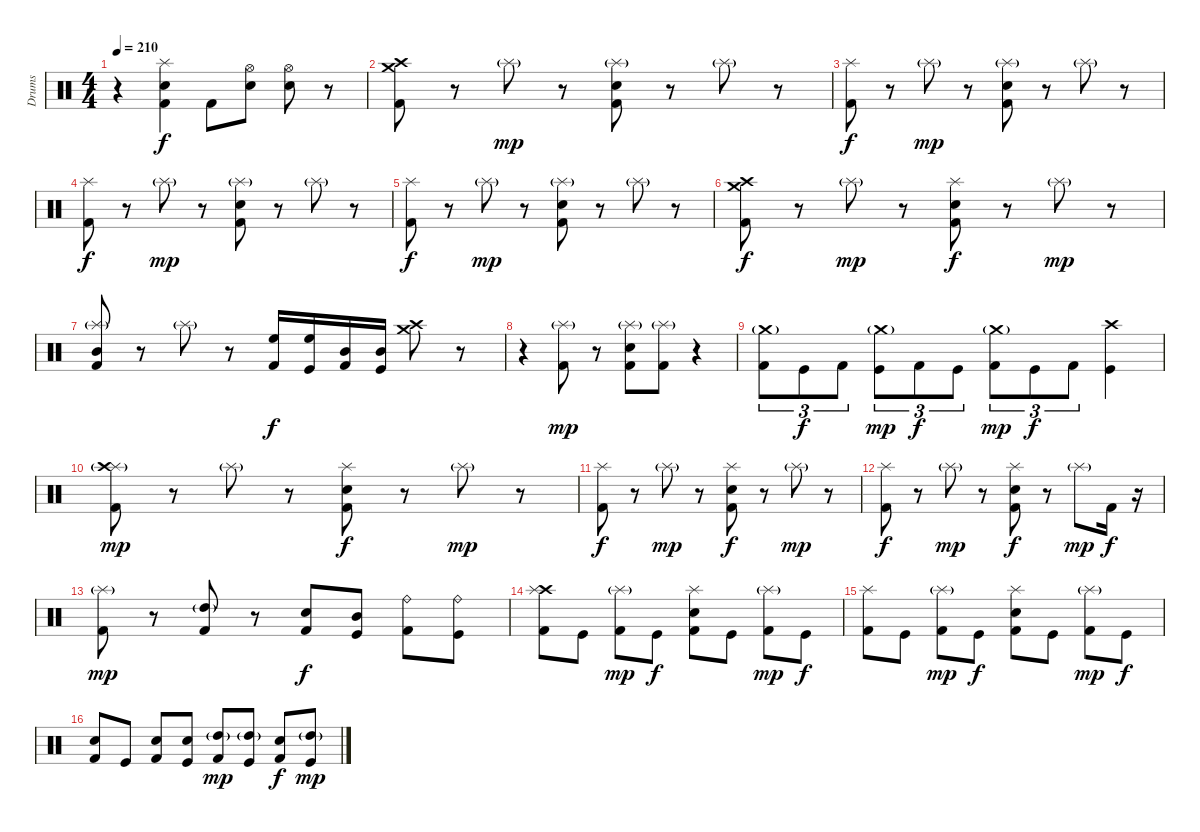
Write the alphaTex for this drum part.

\track ("Drums" "Drums") {instrument percussion}
\staff {score}
\articulation defaults
\ts (4 4)
\tempo 210
\clef neutral
\ks c
r.4{dy f} ("Kick (hit) 2" "Electric Snare (hit)" "Splash (hit)").4 "Kick (hit) 2".8 ("Hi-Hat (open)" "Electric Snare (hit)").8 ("Hi-Hat (open)" "Electric Snare (hit)").8 r.8 |
("Kick (hit) 2" "Crash medium (hit)" "Crash high (hit)").8 r.8 "Splash (hit)"{g}.8{dy mp} r.8 ("Kick (hit) 2" "Electric Snare (hit)" "Splash (hit)"{g}).8 r.8 "Splash (hit)"{g}.8 r.8 |
("Kick (hit) 2" "Splash (hit)").8{dy f} r.8 "Splash (hit)"{g}.8{dy mp} r.8 ("Kick (hit) 2" "Electric Snare (hit)" "Splash (hit)"{g}).8 r.8 "Splash (hit)"{g}.8 r.8 |
("Kick (hit) 2" "Splash (hit)").8{dy f} r.8 "Splash (hit)"{g}.8{dy mp} r.8 ("Kick (hit) 2" "Electric Snare (hit)" "Splash (hit)"{g}).8 r.8 "Splash (hit)"{g}.8 r.8 |
("Kick (hit) 2" "Splash (hit)").8{dy f} r.8 "Splash (hit)"{g}.8{dy mp} r.8 ("Kick (hit) 2" "Electric Snare (hit)" "Splash (hit)"{g}).8 r.8 "Splash (hit)"{g}.8 r.8 |
("Kick (hit) 2" "Crash medium (hit)" "Crash high (hit)").8{dy f} r.8 "Splash (hit)"{g}.8{dy mp} r.8 ("Kick (hit) 2" "Electric Snare (hit)" "Splash (hit)").8{dy f} r.8 "Splash (hit)"{g}.8{dy mp} r.8 |
("Kick (hit) 2" "Mid Tom (hit)" "Splash (hit)"{g}).8 r.8 "Splash (hit)"{g}.8 r.8 ("Kick (hit) 2" "High Floor Tom (hit)").16{dy f} ("Kick (hit)" "High Floor Tom (hit)").16 ("Kick (hit) 2" "Mid Tom (hit)").16 ("Kick (hit)" "Mid Tom (hit)").16 ("Crash high (hit)" "Crash medium (hit)").8 r.8 |
r.4 ("Kick (hit) 2" "Splash (hit)"{g}).8{dy mp} r.8 ("Kick (hit) 2" "Electric Snare (hit)" "Splash (hit)"{g}).8 ("Kick (hit) 2" "Splash (hit)"{g}).8 r.4 |
("Kick (hit) 2" "Crash medium (hit)"{g}).8{tu (3 2)} "Kick (hit)".8{tu (3 2) dy f} "Kick (hit) 2".8{tu (3 2)} ("Kick (hit)" "Crash medium (hit)"{g}).8{tu (3 2) dy mp} "Kick (hit) 2".8{tu (3 2) dy f} "Kick (hit)".8{tu (3 2)} ("Kick (hit) 2" "Crash medium (hit)"{g}).8{tu (3 2) dy mp} "Kick (hit)".8{tu (3 2) dy f} "Kick (hit) 2".8{tu (3 2)} ("Kick (hit)" "Crash high (hit)").4 |
("Kick (hit) 2" "Splash (hit)"{g} "Crash high (hit)").8{dy mp} r.8 "Splash (hit)"{g}.8 r.8 ("Kick (hit) 2" "Electric Snare (hit)" "Splash (hit)").8{dy f} r.8 "Splash (hit)"{g}.8{dy mp} r.8 |
("Kick (hit) 2" "Splash (hit)").8{dy f} r.8 "Splash (hit)"{g}.8{dy mp} r.8 ("Kick (hit) 2" "Electric Snare (hit)" "Splash (hit)").8{dy f} r.8 "Splash (hit)"{g}.8{dy mp} r.8 |
("Kick (hit) 2" "Splash (hit)").8{dy f} r.8 "Splash (hit)"{g}.8{dy mp} r.8 ("Kick (hit) 2" "Electric Snare (hit)" "Splash (hit)").8{dy f} r.8 "Splash (hit)"{g}.8{dy mp} "Kick (hit) 2".16{dy f} r.16 |
("Kick (hit) 2" "Splash (hit)"{g}).8{dy mp} r.8 ("Kick (hit) 2" "High Tom (hit)"{g}).8 r.8 ("Kick (hit) 2" "Electric Snare (hit)").8{dy f} ("Kick (hit)" "Mid Tom (hit)").8 ("Kick (hit) 2" "Ride (bell)").8 ("Kick (hit)" "Ride (bell)").8 |
("Kick (hit) 2" "Crash high (hit)" "Splash (hit)").8 "Kick (hit)".8 ("Kick (hit) 2" "Splash (hit)"{g}).8{dy mp} "Kick (hit)".8{dy f} ("Kick (hit) 2" "Electric Snare (hit)" "Splash (hit)").8 "Kick (hit)".8 ("Kick (hit) 2" "Splash (hit)"{g}).8{dy mp} "Kick (hit)".8{dy f} |
("Kick (hit) 2" "Splash (hit)").8 "Kick (hit)".8 ("Kick (hit) 2" "Splash (hit)"{g}).8{dy mp} "Kick (hit)".8{dy f} ("Kick (hit) 2" "Electric Snare (hit)" "Splash (hit)").8 "Kick (hit)".8 ("Kick (hit) 2" "Splash (hit)"{g}).8{dy mp} "Kick (hit)".8{dy f} |
("Kick (hit) 2" "Electric Snare (hit)").8 "Kick (hit)".8 ("Kick (hit) 2" "Electric Snare (hit)").8 ("Kick (hit)" "Electric Snare (hit)").8 ("Kick (hit) 2" "High Tom (hit)"{g}).8{dy mp} ("Kick (hit)" "High Tom (hit)"{g}).8 ("Kick (hit) 2" "Electric Snare (hit)").8{dy f} ("Kick (hit)" "High Tom (hit)"{g}).8{dy mp}
